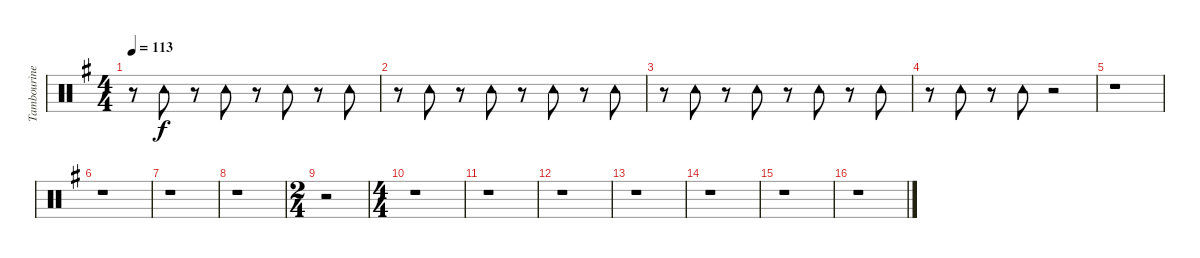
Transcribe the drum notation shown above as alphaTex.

\track ("Tambourine" "Tambourine") {instrument percussion}
\staff {score}
\articulation defaults
\ts (4 4)
\tempo 113
\clef neutral
\ks eminor
r.8{dy f} "Tambourine (hit)".8 r.8 "Tambourine (hit)".8 r.8 "Tambourine (hit)".8 r.8 "Tambourine (hit)".8 |
r.8 "Tambourine (hit)".8 r.8 "Tambourine (hit)".8 r.8 "Tambourine (hit)".8 r.8 "Tambourine (hit)".8 |
r.8 "Tambourine (hit)".8 r.8 "Tambourine (hit)".8 r.8 "Tambourine (hit)".8 r.8 "Tambourine (hit)".8 |
r.8 "Tambourine (hit)".8 r.8 "Tambourine (hit)".8 r.2 |
r.1 |
r.1 |
r.1 |
r.1 |
\ts (2 4)
r.2 |
\ts (4 4)
r.1 |
r.1 |
r.1 |
r.1 |
r.1 |
r.1 |
r.1
